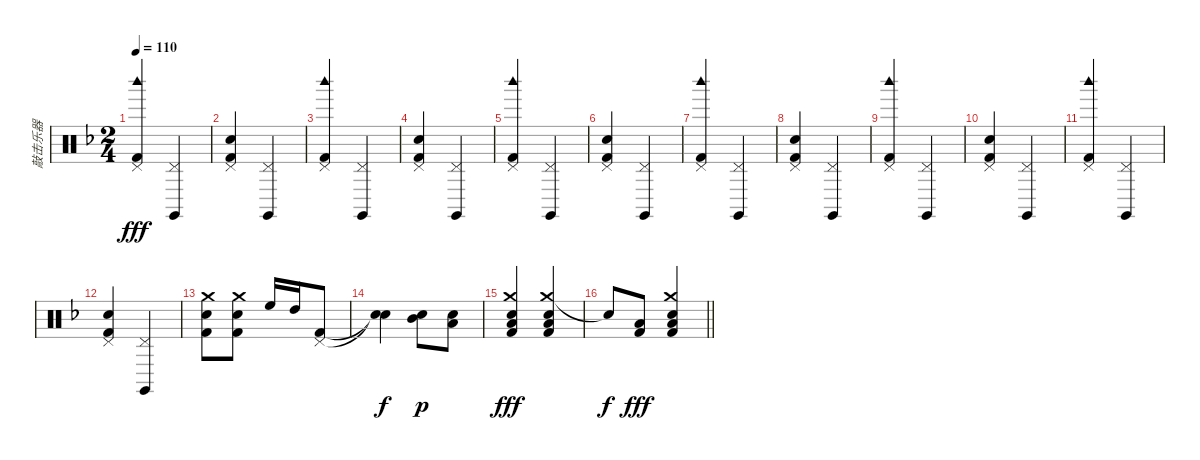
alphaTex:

\track ("敲击乐器" "敲击乐器") {instrument percussion}
\staff {score}
\articulation defaults
\ts (2 4)
\tempo 110
\clef neutral
\ks dminor
("Pedal Hi-Hat (hit)" "Woodblock high (hit)" "Kick (hit) 2").4{dy fff} ("Pedal Hi-Hat (hit)" "Claves (hit)").4 |
("Pedal Hi-Hat (hit)" "Hand Clap (hit)" "Kick (hit) 2").4 ("Pedal Hi-Hat (hit)" "Claves (hit)").4 |
("Pedal Hi-Hat (hit)" "Woodblock high (hit)" "Kick (hit) 2").4 ("Pedal Hi-Hat (hit)" "Claves (hit)").4 |
("Pedal Hi-Hat (hit)" "Electric Snare (hit)" "Kick (hit) 2").4 ("Pedal Hi-Hat (hit)" "Claves (hit)").4 |
("Pedal Hi-Hat (hit)" "Woodblock high (hit)" "Kick (hit) 2").4 ("Pedal Hi-Hat (hit)" "Claves (hit)").4 |
("Pedal Hi-Hat (hit)" "Hand Clap (hit)" "Kick (hit) 2").4 ("Pedal Hi-Hat (hit)" "Claves (hit)").4 |
("Pedal Hi-Hat (hit)" "Woodblock high (hit)" "Kick (hit) 2").4 ("Pedal Hi-Hat (hit)" "Claves (hit)").4 |
("Pedal Hi-Hat (hit)" "Electric Snare (hit)" "Kick (hit) 2").4 ("Pedal Hi-Hat (hit)" "Claves (hit)").4 |
("Pedal Hi-Hat (hit)" "Woodblock high (hit)" "Kick (hit) 2").4 ("Pedal Hi-Hat (hit)" "Claves (hit)").4 |
("Pedal Hi-Hat (hit)" "Hand Clap (hit)" "Kick (hit) 2").4 ("Pedal Hi-Hat (hit)" "Claves (hit)").4 |
("Pedal Hi-Hat (hit)" "Woodblock high (hit)" "Kick (hit) 2").4 ("Pedal Hi-Hat (hit)" "Claves (hit)").4 |
("Pedal Hi-Hat (hit)" "Electric Snare (hit)" "Kick (hit) 2").4 ("Pedal Hi-Hat (hit)" "Claves (hit)").4 |
("Crash medium (hit)" "Electric Snare (hit)" "Kick (hit) 2").8 ("Crash medium (hit)" "Electric Snare (hit)" "Kick (hit) 2").8 "High Floor Tom (hit)".16 "High Tom (hit)".16 ("Pedal Hi-Hat (hit)" "Kick (hit) 2").8 |
("Snare (hit)"{t} "Snare (hit)"{t}).4{dy f} ("Mid Tom (hit)" "Electric Snare (hit)").8{dy p} ("Low Tom (hit)" "Electric Snare (hit)").8 |
("Crash medium (hit)" "Electric Snare (hit)" "Low Floor Tom (hit)" "Kick (hit) 2").4{dy fff} ("Crash medium (hit)" "Electric Snare (hit)" "Low Floor Tom (hit)" "Kick (hit) 2").4 |
\barLineRight lightlight "Snare (hit)"{t}.8{dy f}
("Low Floor Tom (hit)" "Kick (hit) 2").8{dy fff} ("Crash medium (hit)" "Electric Snare (hit)" "Low Floor Tom (hit)" "Kick (hit) 2").4
